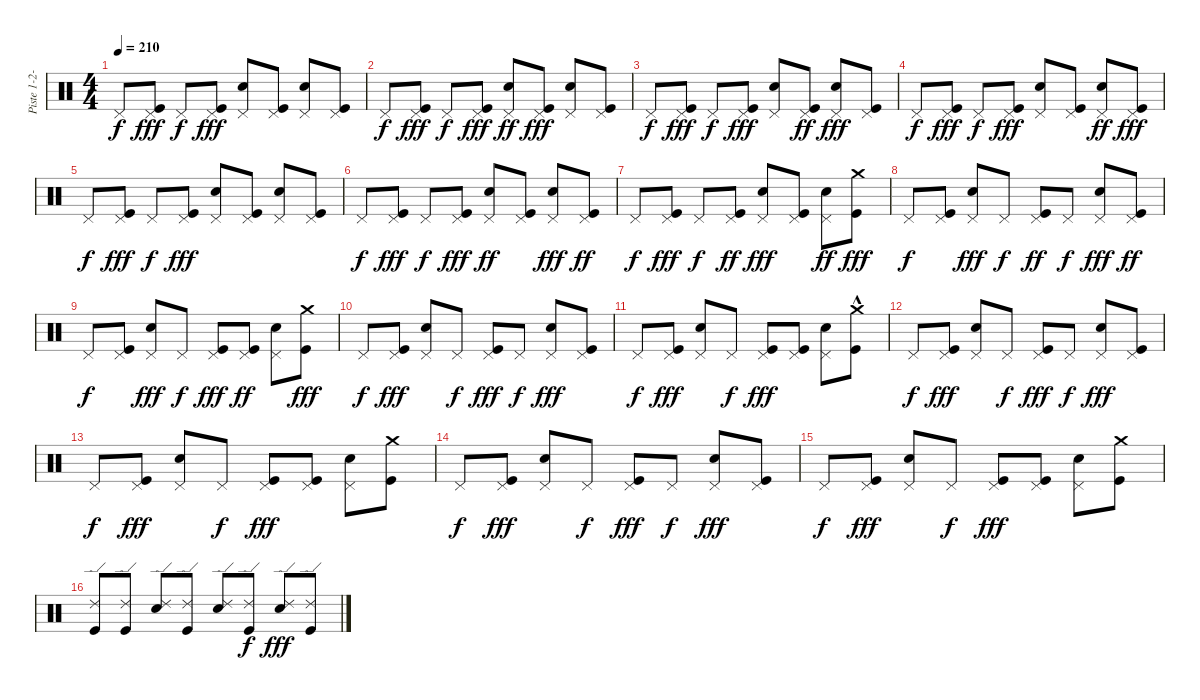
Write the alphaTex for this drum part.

\track ("Piste 1-2-3-4" "Piste 1-2-") {instrument percussion}
\staff {score}
\articulation defaults
\ts (4 4)
\tempo 210
\clef neutral
\ks c "Pedal Hi-Hat (hit)".8{dy f}
("Pedal Hi-Hat (hit)" "Kick (hit)").8{dy fff} "Pedal Hi-Hat (hit)".8{dy f} ("Pedal Hi-Hat (hit)" "Kick (hit)").8{dy fff} ("Pedal Hi-Hat (hit)" "Snare (hit) 2").8 ("Pedal Hi-Hat (hit)" "Kick (hit)").8 ("Pedal Hi-Hat (hit)" "Snare (hit) 2").8 ("Pedal Hi-Hat (hit)" "Kick (hit)").8 |
"Pedal Hi-Hat (hit)".8{dy f} ("Pedal Hi-Hat (hit)" "Kick (hit)").8{dy fff} "Pedal Hi-Hat (hit)".8{dy f} ("Pedal Hi-Hat (hit)" "Kick (hit)").8{dy fff} ("Pedal Hi-Hat (hit)" "Snare (hit) 2").8{dy ff} ("Pedal Hi-Hat (hit)" "Kick (hit)").8{dy fff} ("Pedal Hi-Hat (hit)" "Snare (hit) 2").8 ("Pedal Hi-Hat (hit)" "Kick (hit)").8 |
"Pedal Hi-Hat (hit)".8{dy f} ("Pedal Hi-Hat (hit)" "Kick (hit)").8{dy fff} "Pedal Hi-Hat (hit)".8{dy f} ("Pedal Hi-Hat (hit)" "Kick (hit)").8{dy fff} ("Pedal Hi-Hat (hit)" "Snare (hit) 2").8 ("Pedal Hi-Hat (hit)" "Kick (hit)").8{dy ff} ("Pedal Hi-Hat (hit)" "Snare (hit) 2").8{dy fff} ("Pedal Hi-Hat (hit)" "Kick (hit)").8 |
"Pedal Hi-Hat (hit)".8{dy f} ("Pedal Hi-Hat (hit)" "Kick (hit)").8{dy fff} "Pedal Hi-Hat (hit)".8{dy f} ("Pedal Hi-Hat (hit)" "Kick (hit)").8{dy fff} ("Pedal Hi-Hat (hit)" "Snare (hit) 2").8 ("Pedal Hi-Hat (hit)" "Kick (hit)").8 ("Pedal Hi-Hat (hit)" "Snare (hit) 2").8{dy ff} ("Pedal Hi-Hat (hit)" "Kick (hit)").8{dy fff} |
"Pedal Hi-Hat (hit)".8{dy f} ("Pedal Hi-Hat (hit)" "Kick (hit)").8{dy fff} "Pedal Hi-Hat (hit)".8{dy f} ("Pedal Hi-Hat (hit)" "Kick (hit)").8{dy fff} ("Pedal Hi-Hat (hit)" "Snare (hit) 2").8 ("Pedal Hi-Hat (hit)" "Kick (hit)").8 ("Pedal Hi-Hat (hit)" "Snare (hit) 2").8 ("Pedal Hi-Hat (hit)" "Kick (hit)").8 |
"Pedal Hi-Hat (hit)".8{dy f} ("Pedal Hi-Hat (hit)" "Kick (hit)").8{dy fff} "Pedal Hi-Hat (hit)".8{dy f} ("Pedal Hi-Hat (hit)" "Kick (hit)").8{dy fff} ("Pedal Hi-Hat (hit)" "Snare (hit) 2").8{dy ff} ("Pedal Hi-Hat (hit)" "Kick (hit)").8 ("Pedal Hi-Hat (hit)" "Snare (hit) 2").8{dy fff} ("Pedal Hi-Hat (hit)" "Kick (hit)").8{dy ff} |
"Pedal Hi-Hat (hit)".8{dy f} ("Pedal Hi-Hat (hit)" "Kick (hit)").8{dy fff} "Pedal Hi-Hat (hit)".8{dy f} ("Pedal Hi-Hat (hit)" "Kick (hit)").8{dy ff} ("Pedal Hi-Hat (hit)" "Snare (hit) 2").8{dy fff} ("Pedal Hi-Hat (hit)" "Kick (hit)").8 ("Pedal Hi-Hat (hit)" "Snare (hit) 2").8{dy ff} ("Crash medium (hit)" "Kick (hit)").8{dy fff} |
"Pedal Hi-Hat (hit)".8{dy f} ("Pedal Hi-Hat (hit)" "Kick (hit)").8 ("Pedal Hi-Hat (hit)" "Snare (hit) 2").8{dy fff} "Pedal Hi-Hat (hit)".8{dy f} ("Pedal Hi-Hat (hit)" "Kick (hit)").8{dy ff} "Pedal Hi-Hat (hit)".8{dy f} ("Pedal Hi-Hat (hit)" "Snare (hit) 2").8{dy fff} ("Pedal Hi-Hat (hit)" "Kick (hit)").8{dy ff} |
"Pedal Hi-Hat (hit)".8{dy f} ("Pedal Hi-Hat (hit)" "Kick (hit)").8 ("Pedal Hi-Hat (hit)" "Snare (hit) 2").8{dy fff} "Pedal Hi-Hat (hit)".8{dy f} ("Pedal Hi-Hat (hit)" "Kick (hit)").8{dy fff} ("Pedal Hi-Hat (hit)" "Kick (hit)").8{dy ff} ("Pedal Hi-Hat (hit)" "Snare (hit) 2").8 ("Crash medium (hit)" "Kick (hit)").8{dy fff} |
"Pedal Hi-Hat (hit)".8{dy f} ("Pedal Hi-Hat (hit)" "Kick (hit)").8{dy fff} ("Pedal Hi-Hat (hit)" "Snare (hit) 2").8 "Pedal Hi-Hat (hit)".8{dy f} ("Pedal Hi-Hat (hit)" "Kick (hit)").8{dy fff} "Pedal Hi-Hat (hit)".8{dy f} ("Pedal Hi-Hat (hit)" "Snare (hit) 2").8{dy fff} ("Pedal Hi-Hat (hit)" "Kick (hit)").8 |
"Pedal Hi-Hat (hit)".8{dy f} ("Pedal Hi-Hat (hit)" "Kick (hit)").8{dy fff} ("Pedal Hi-Hat (hit)" "Snare (hit) 2").8 "Pedal Hi-Hat (hit)".8{dy f} ("Pedal Hi-Hat (hit)" "Kick (hit)").8{dy fff} ("Pedal Hi-Hat (hit)" "Kick (hit)").8 ("Pedal Hi-Hat (hit)" "Snare (hit) 2").8 ("Crash medium (hit)"{hac} "Kick (hit)").8 |
"Pedal Hi-Hat (hit)".8{dy f} ("Pedal Hi-Hat (hit)" "Kick (hit)").8{dy fff} ("Pedal Hi-Hat (hit)" "Snare (hit) 2").8 "Pedal Hi-Hat (hit)".8{dy f} ("Pedal Hi-Hat (hit)" "Kick (hit)").8{dy fff} "Pedal Hi-Hat (hit)".8{dy f} ("Pedal Hi-Hat (hit)" "Snare (hit) 2").8{dy fff} ("Pedal Hi-Hat (hit)" "Kick (hit)").8 |
"Pedal Hi-Hat (hit)".8{dy f} ("Pedal Hi-Hat (hit)" "Kick (hit)").8{dy fff} ("Pedal Hi-Hat (hit)" "Snare (hit) 2").8 "Pedal Hi-Hat (hit)".8{dy f} ("Pedal Hi-Hat (hit)" "Kick (hit)").8{dy fff} ("Pedal Hi-Hat (hit)" "Kick (hit)").8 ("Pedal Hi-Hat (hit)" "Snare (hit) 2").8 ("Crash medium (hit)" "Kick (hit)").8 |
"Pedal Hi-Hat (hit)".8{dy f} ("Pedal Hi-Hat (hit)" "Kick (hit)").8{dy fff} ("Pedal Hi-Hat (hit)" "Snare (hit) 2").8 "Pedal Hi-Hat (hit)".8{dy f} ("Pedal Hi-Hat (hit)" "Kick (hit)").8{dy fff} "Pedal Hi-Hat (hit)".8{dy f} ("Pedal Hi-Hat (hit)" "Snare (hit) 2").8{dy fff} ("Pedal Hi-Hat (hit)" "Kick (hit)").8 |
"Pedal Hi-Hat (hit)".8{dy f} ("Pedal Hi-Hat (hit)" "Kick (hit)").8{dy fff} ("Pedal Hi-Hat (hit)" "Snare (hit) 2").8 "Pedal Hi-Hat (hit)".8{dy f} ("Pedal Hi-Hat (hit)" "Kick (hit)").8{dy fff} ("Pedal Hi-Hat (hit)" "Kick (hit)").8 ("Pedal Hi-Hat (hit)" "Snare (hit) 2").8 ("Crash medium (hit)" "Kick (hit)").8 |
("Ride (edge) 2" "Kick (hit)").8 ("Ride (edge) 2" "Kick (hit)").8 ("Ride (edge) 2" "Snare (hit) 2").8 ("Ride (edge) 2" "Kick (hit)").8 ("Ride (edge) 2" "Snare (hit) 2").8 ("Ride (edge) 2" "Kick (hit)").8{dy f} ("Ride (edge) 2" "Snare (hit) 2").8{dy fff} ("Ride (edge) 2" "Kick (hit)").8
